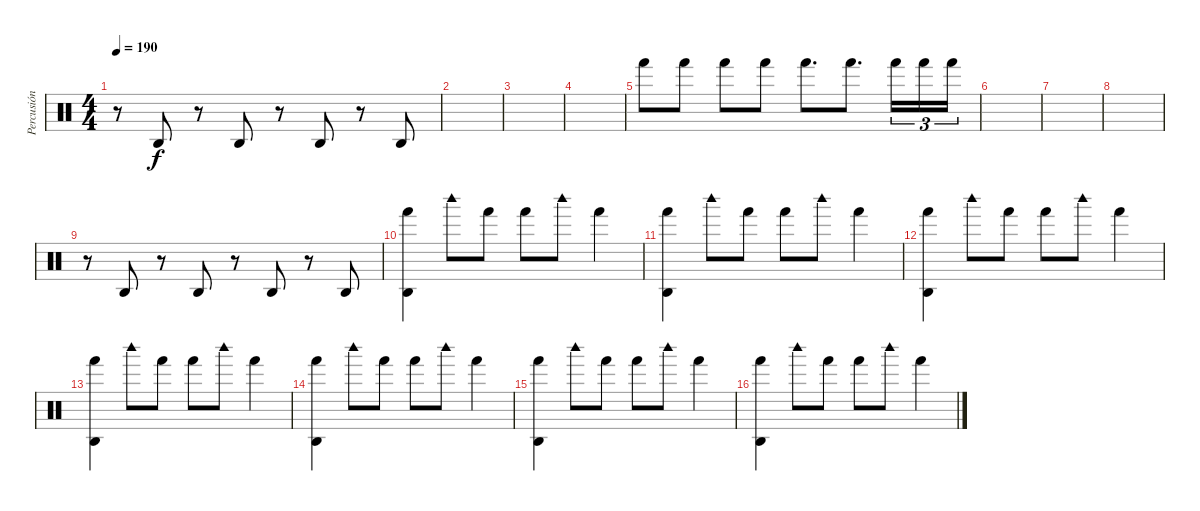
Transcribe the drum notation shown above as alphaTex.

\track ("Percusión" "Percusión") {instrument percussion}
\staff {score}
\articulation defaults
\ts (4 4)
\tempo 190
\clef neutral
\ks c
r.8{dy f} "Agogo high (hit)".8 r.8 "Agogo high (hit)".8 r.8 "Agogo high (hit)".8 r.8 "Agogo high (hit)".8 |
|
|
|
"Hand (hit)".8 "Hand (hit)".8 "Hand (hit)".8 "Hand (hit)".8 "Hand (hit)".8{d} "Hand (hit)".8{d} "Hand (hit)".16{tu (3 2)} "Hand (hit)".16{tu (3 2)} "Hand (hit)".16{tu (3 2)} |
|
|
|
r.8 "Agogo high (hit)".8 r.8 "Agogo high (hit)".8 r.8 "Agogo high (hit)".8 r.8 "Agogo high (hit)".8 |
("Hand (hit)" "Agogo high (hit)").4 "Woodblock high (hit)".8 "Hand (hit)".8 "Hand (hit)".8 "Woodblock high (hit)".8 "Hand (hit)".4 |
("Hand (hit)" "Agogo high (hit)").4 "Woodblock high (hit)".8 "Hand (hit)".8 "Hand (hit)".8 "Woodblock high (hit)".8 "Hand (hit)".4 |
("Hand (hit)" "Agogo high (hit)").4 "Woodblock high (hit)".8 "Hand (hit)".8 "Hand (hit)".8 "Woodblock high (hit)".8 "Hand (hit)".4 |
("Hand (hit)" "Agogo high (hit)").4 "Woodblock high (hit)".8 "Hand (hit)".8 "Hand (hit)".8 "Woodblock high (hit)".8 "Hand (hit)".4 |
("Hand (hit)" "Agogo high (hit)").4 "Woodblock high (hit)".8 "Hand (hit)".8 "Hand (hit)".8 "Woodblock high (hit)".8 "Hand (hit)".4 |
("Hand (hit)" "Agogo high (hit)").4 "Woodblock high (hit)".8 "Hand (hit)".8 "Hand (hit)".8 "Woodblock high (hit)".8 "Hand (hit)".4 |
("Hand (hit)" "Agogo high (hit)").4 "Woodblock high (hit)".8 "Hand (hit)".8 "Hand (hit)".8 "Woodblock high (hit)".8 "Hand (hit)".4
